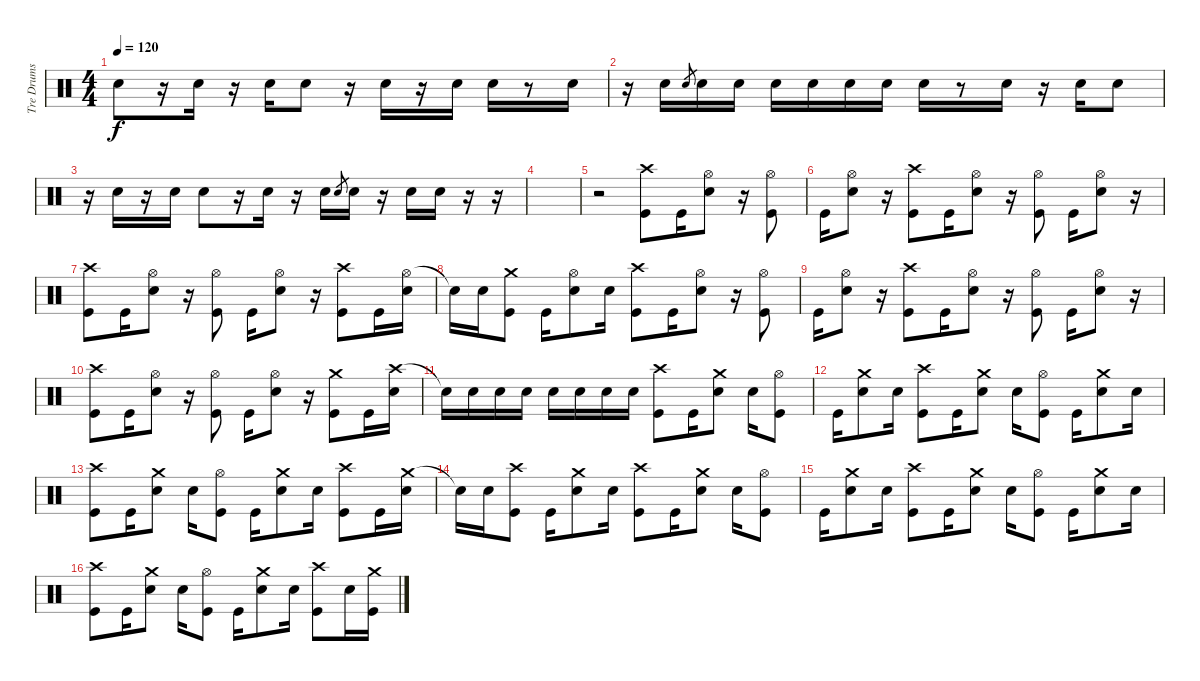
\track ("Tre Drums" "Tre Drums") {instrument percussion}
\staff {score}
\articulation defaults
\ts (4 4)
\tempo 120
\clef neutral
\ks c "Electric Snare (hit)".8{dy f}
r.16 "Electric Snare (hit)".16 r.16 "Electric Snare (hit)".16 "Electric Snare (hit)".8 r.16 "Electric Snare (hit)".16 r.16 "Electric Snare (hit)".16 "Electric Snare (hit)".16 r.8 "Electric Snare (hit)".16 |
r.16 "Electric Snare (hit)".16 "Electric Snare (hit)".8{gr} "Electric Snare (hit)".16 "Electric Snare (hit)".16 "Electric Snare (hit)".16 "Electric Snare (hit)".16 "Electric Snare (hit)".16 "Electric Snare (hit)".16 "Electric Snare (hit)".16 r.8 "Electric Snare (hit)".16 r.16 "Electric Snare (hit)".16 "Electric Snare (hit)".8 |
r.16 "Electric Snare (hit)".16 r.16 "Electric Snare (hit)".16 "Electric Snare (hit)".8 r.16 "Electric Snare (hit)".16 r.16 "Electric Snare (hit)".16 "Electric Snare (hit)".8{gr} "Electric Snare (hit)".16 r.16 "Electric Snare (hit)".16 "Electric Snare (hit)".16 r.16 r.16 |
|
r.2 ("Crash high (hit)" "Kick (hit)").8 "Kick (hit)".16 ("Hi-Hat (open)" "Electric Snare (hit)").8 r.16 ("Hi-Hat (open)" "Kick (hit)").8 |
"Kick (hit)".16 ("Hi-Hat (open)" "Electric Snare (hit)").8 r.16 ("Crash high (hit)" "Kick (hit)").8 "Kick (hit)".16 ("Hi-Hat (open)" "Electric Snare (hit)").8 r.16 ("Hi-Hat (open)" "Kick (hit)").8 "Kick (hit)".16 ("Hi-Hat (open)" "Electric Snare (hit)").8 r.16 |
("Crash high (hit)" "Kick (hit)").8 "Kick (hit)".16 ("Hi-Hat (open)" "Electric Snare (hit)").8 r.16 ("Hi-Hat (open)" "Kick (hit)").8 "Kick (hit)".16 ("Hi-Hat (open)" "Electric Snare (hit)").8 r.16 ("Crash high (hit)" "Kick (hit)").8 "Kick (hit)".16 ("Hi-Hat (open)" "Electric Snare (hit)").16 |
"Snare (hit)"{t}.16 "Electric Snare (hit)".16 ("Crash medium (hit)" "Kick (hit)").8 "Kick (hit)".16 ("Hi-Hat (open)" "Electric Snare (hit)").8 "Electric Snare (hit)".16 ("Crash high (hit)" "Kick (hit)").8 "Kick (hit)".16 ("Hi-Hat (open)" "Electric Snare (hit)").8 r.16 ("Hi-Hat (open)" "Kick (hit)").8 |
"Kick (hit)".16 ("Hi-Hat (open)" "Electric Snare (hit)").8 r.16 ("Crash high (hit)" "Kick (hit)").8 "Kick (hit)".16 ("Hi-Hat (open)" "Electric Snare (hit)").8 r.16 ("Hi-Hat (open)" "Kick (hit)").8 "Kick (hit)".16 ("Hi-Hat (open)" "Electric Snare (hit)").8 r.16 |
("Crash high (hit)" "Kick (hit)").8 "Kick (hit)".16 ("Hi-Hat (open)" "Electric Snare (hit)").8 r.16 ("Hi-Hat (open)" "Kick (hit)").8 "Kick (hit)".16 ("Hi-Hat (open)" "Electric Snare (hit)").8 r.16 ("Crash medium (hit)" "Kick (hit)").8 "Kick (hit)".16 ("Crash high (hit)" "Electric Snare (hit)").16 |
"Snare (hit)"{t}.16 "Electric Snare (hit)".16 "Electric Snare (hit)".16 "Electric Snare (hit)".16 "Electric Snare (hit)".16 "Electric Snare (hit)".16 "Electric Snare (hit)".16 "Electric Snare (hit)".16 ("Crash high (hit)" "Kick (hit)").8 "Kick (hit)".16 ("Crash medium (hit)" "Electric Snare (hit)").8 "Electric Snare (hit)".16 ("Hi-Hat (open)" "Kick (hit)").8 |
"Kick (hit)".16 ("Crash medium (hit)" "Electric Snare (hit)").8 "Electric Snare (hit)".16 ("Crash high (hit)" "Kick (hit)").8 "Kick (hit)".16 ("Crash medium (hit)" "Electric Snare (hit)").8 "Electric Snare (hit)".16 ("Hi-Hat (open)" "Kick (hit)").8 "Kick (hit)".16 ("Crash medium (hit)" "Electric Snare (hit)").8 "Electric Snare (hit)".16 |
("Crash high (hit)" "Kick (hit)").8 "Kick (hit)".16 ("Crash medium (hit)" "Electric Snare (hit)").8 "Electric Snare (hit)".16 ("Hi-Hat (open)" "Kick (hit)").8 "Kick (hit)".16 ("Crash medium (hit)" "Electric Snare (hit)").8 "Electric Snare (hit)".16 ("Crash high (hit)" "Kick (hit)").8 "Kick (hit)".16 ("Crash medium (hit)" "Electric Snare (hit)").16 |
"Snare (hit)"{t}.16 "Electric Snare (hit)".16 ("Crash high (hit)" "Kick (hit)").8 "Kick (hit)".16 ("Crash medium (hit)" "Electric Snare (hit)").8 "Electric Snare (hit)".16 ("Crash high (hit)" "Kick (hit)").8 "Kick (hit)".16 ("Crash medium (hit)" "Electric Snare (hit)").8 "Electric Snare (hit)".16 ("Hi-Hat (open)" "Kick (hit)").8 |
"Kick (hit)".16 ("Crash medium (hit)" "Electric Snare (hit)").8 "Electric Snare (hit)".16 ("Crash high (hit)" "Kick (hit)").8 "Kick (hit)".16 ("Crash medium (hit)" "Electric Snare (hit)").8 "Electric Snare (hit)".16 ("Hi-Hat (open)" "Kick (hit)").8 "Kick (hit)".16 ("Crash medium (hit)" "Electric Snare (hit)").8 "Electric Snare (hit)".16 |
("Crash high (hit)" "Kick (hit)").8 "Kick (hit)".16 ("Crash medium (hit)" "Electric Snare (hit)").8 "Electric Snare (hit)".16 ("Hi-Hat (open)" "Kick (hit)").8 "Kick (hit)".16 ("Crash medium (hit)" "Electric Snare (hit)").8 "Electric Snare (hit)".16 ("Crash high (hit)" "Kick (hit)").8 "Electric Snare (hit)".16 ("Crash medium (hit)" "Kick (hit)").16
